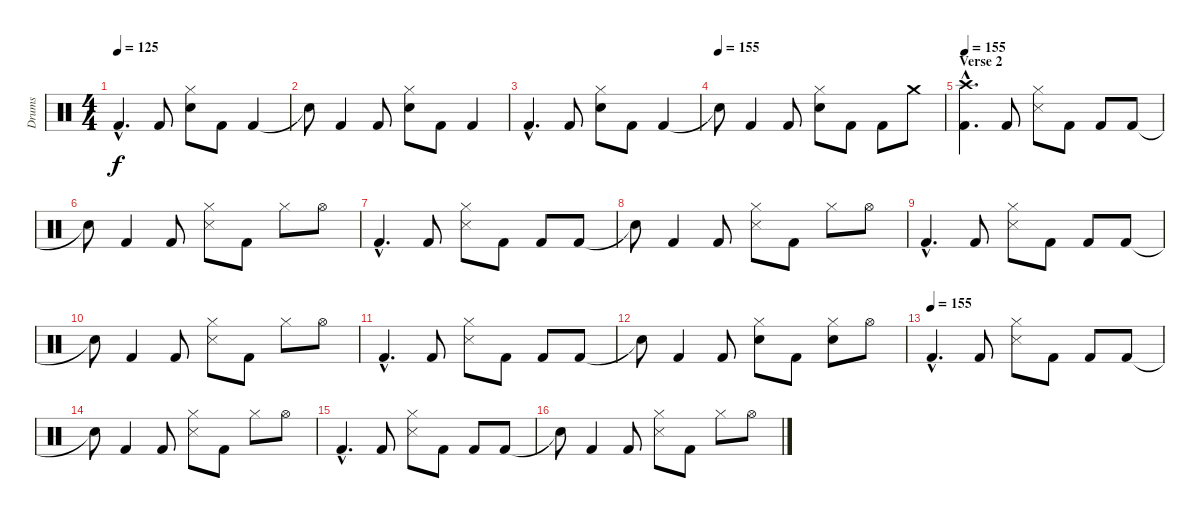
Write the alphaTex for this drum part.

\track ("Drums" "Drums") {instrument percussion}
\staff {score}
\articulation defaults
\ts (4 4)
\tempo 125
\clef neutral
\ks c "Kick (hit) 2"{hac}.4{d dy f} "Kick (hit) 2".8
("Hi-Hat (closed)" "Snare (hit) 2").8 "Kick (hit) 2".8 "Kick (hit) 2".4 |
"Snare (hit)"{t}.8 "Kick (hit) 2".4 "Kick (hit) 2".8 ("Hi-Hat (closed)" "Snare (hit) 2").8 "Kick (hit) 2".8 "Kick (hit) 2".4 |
"Kick (hit) 2"{hac}.4{d} "Kick (hit) 2".8 ("Hi-Hat (closed)" "Snare (hit) 2").8 "Kick (hit) 2".8 "Kick (hit) 2".4 |
\tempo (155)
"Snare (hit)"{t}.8 "Kick (hit) 2".4 "Kick (hit) 2".8 ("Hi-Hat (closed)" "Snare (hit) 2").8 "Kick (hit) 2".8 "Kick (hit) 2".8 "Crash medium (hit)".8 |
\section ("" "Verse 2")
\tempo 155
("Crash high (hit)"{hac} "Kick (hit) 2"{hac}).4{d} "Kick (hit) 2".8 ("Hi-Hat (closed)" "Snare (side stick) 3").8 "Kick (hit) 2".8 "Kick (hit) 2".8 "Kick (hit) 2".8 |
"Snare (hit)"{t}.8 "Kick (hit) 2".4 "Kick (hit) 2".8 ("Hi-Hat (closed)" "Snare (side stick) 3").8 "Kick (hit) 2".8 "Hi-Hat (closed)".8 "Hi-Hat (open)".8 |
"Kick (hit) 2"{hac}.4{d} "Kick (hit) 2".8 ("Hi-Hat (closed)" "Snare (side stick) 3").8 "Kick (hit) 2".8 "Kick (hit) 2".8 "Kick (hit) 2".8 |
"Snare (hit)"{t}.8 "Kick (hit) 2".4 "Kick (hit) 2".8 ("Hi-Hat (closed)" "Snare (side stick) 3").8 "Kick (hit) 2".8 "Hi-Hat (closed)".8 "Hi-Hat (open)".8 |
"Kick (hit) 2"{hac}.4{d} "Kick (hit) 2".8 ("Hi-Hat (closed)" "Snare (side stick) 3").8 "Kick (hit) 2".8 "Kick (hit) 2".8 "Kick (hit) 2".8 |
"Snare (hit)"{t}.8 "Kick (hit) 2".4 "Kick (hit) 2".8 ("Hi-Hat (closed)" "Snare (side stick) 3").8 "Kick (hit) 2".8 "Hi-Hat (closed)".8 "Hi-Hat (open)".8 |
"Kick (hit) 2"{hac}.4{d} "Kick (hit) 2".8 ("Hi-Hat (closed)" "Snare (side stick) 3").8 "Kick (hit) 2".8 "Kick (hit) 2".8 "Kick (hit) 2".8 |
"Snare (hit)"{t}.8 "Kick (hit) 2".4 "Kick (hit) 2".8 ("Hi-Hat (closed)" "Snare (hit) 2").8 "Kick (hit) 2".8 ("Hi-Hat (closed)" "Snare (hit) 2").8 "Hi-Hat (open)".8 |
\tempo (155)
"Kick (hit) 2"{hac}.4{d} "Kick (hit) 2".8 ("Hi-Hat (closed)" "Snare (side stick) 3").8 "Kick (hit) 2".8 "Kick (hit) 2".8 "Kick (hit) 2".8 |
"Snare (hit)"{t}.8 "Kick (hit) 2".4 "Kick (hit) 2".8 ("Hi-Hat (closed)" "Snare (side stick) 3").8 "Kick (hit) 2".8 "Hi-Hat (closed)".8 "Hi-Hat (open)".8 |
"Kick (hit) 2"{hac}.4{d} "Kick (hit) 2".8 ("Hi-Hat (closed)" "Snare (side stick) 3").8 "Kick (hit) 2".8 "Kick (hit) 2".8 "Kick (hit) 2".8 |
"Snare (hit)"{t}.8 "Kick (hit) 2".4 "Kick (hit) 2".8 ("Hi-Hat (closed)" "Snare (side stick) 3").8 "Kick (hit) 2".8 "Hi-Hat (closed)".8 "Hi-Hat (open)".8
